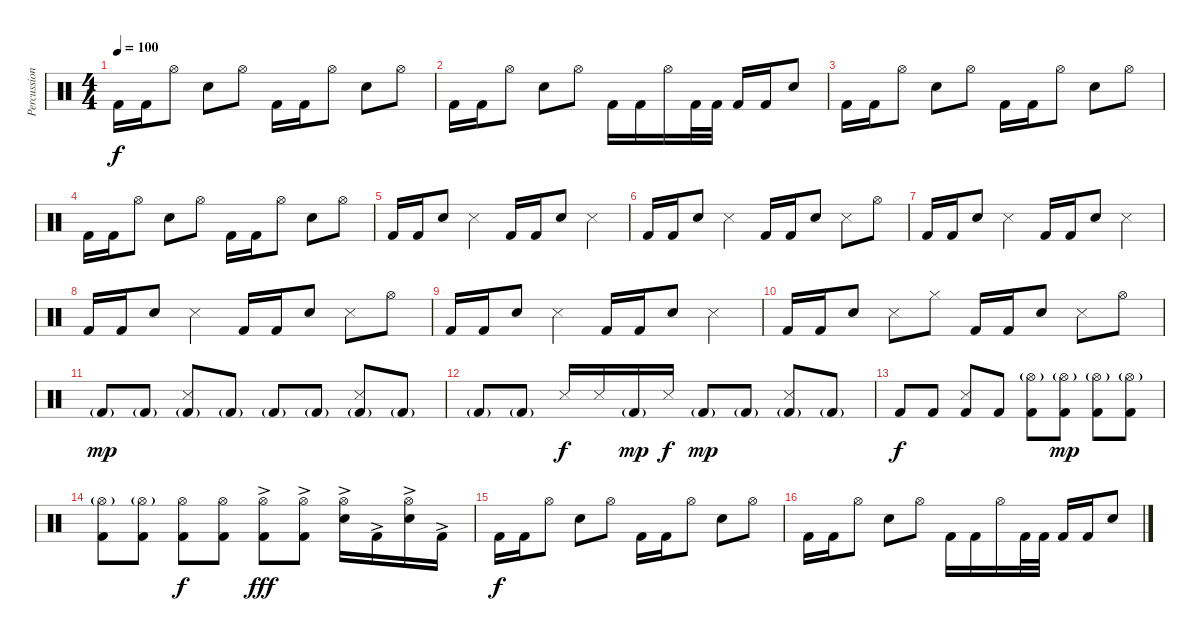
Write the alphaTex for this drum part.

\track ("Percussion" "Percussion") {instrument percussion}
\staff {score}
\articulation defaults
\ts (4 4)
\tempo 100
\clef neutral
\ks c "Kick (hit) 2".16{dy f} "Kick (hit) 2".16 "Hi-Hat (open)".8 "Electric Snare (hit)".8 "Hi-Hat (open)".8 "Kick (hit) 2".16 "Kick (hit) 2".16 "Hi-Hat (open)".8 "Electric Snare (hit)".8 "Hi-Hat (open)".8
|
"Kick (hit) 2".16 "Kick (hit) 2".16 "Hi-Hat (open)".8 "Electric Snare (hit)".8 "Hi-Hat (open)".8 "Kick (hit) 2".16 "Kick (hit) 2".16 "Hi-Hat (open)".16 "Kick (hit) 2".32 "Kick (hit) 2".32 "Kick (hit) 2".16 "Kick (hit) 2".16 "Electric Snare (hit)".8 |
"Kick (hit) 2".16 "Kick (hit) 2".16 "Hi-Hat (open)".8 "Electric Snare (hit)".8 "Hi-Hat (open)".8 "Kick (hit) 2".16 "Kick (hit) 2".16 "Hi-Hat (open)".8 "Electric Snare (hit)".8 "Hi-Hat (open)".8 |
"Kick (hit) 2".16 "Kick (hit) 2".16 "Hi-Hat (open)".8 "Electric Snare (hit)".8 "Hi-Hat (open)".8 "Kick (hit) 2".16 "Kick (hit) 2".16 "Hi-Hat (open)".8 "Electric Snare (hit)".8 "Hi-Hat (open)".8 |
"Kick (hit) 2".16 "Kick (hit) 2".16 "Snare (hit)".8 "Metronome (hit)".4 "Kick (hit) 2".16 "Kick (hit) 2".16 "Snare (hit)".8 "Metronome (hit)".4 |
"Kick (hit) 2".16 "Kick (hit) 2".16 "Snare (hit)".8 "Metronome (hit)".4 "Kick (hit) 2".16 "Kick (hit) 2".16 "Snare (hit)".8 "Metronome (hit)".8 "Hi-Hat (open)".8 |
"Kick (hit) 2".16 "Kick (hit) 2".16 "Snare (hit)".8 "Metronome (hit)".4 "Kick (hit) 2".16 "Kick (hit) 2".16 "Snare (hit)".8 "Metronome (hit)".4 |
"Kick (hit) 2".16 "Kick (hit) 2".16 "Snare (hit)".8 "Metronome (hit)".4 "Kick (hit) 2".16 "Kick (hit) 2".16 "Snare (hit)".8 "Metronome (hit)".8 "Hi-Hat (open)".8 |
"Kick (hit) 2".16 "Kick (hit) 2".16 "Snare (hit)".8 "Metronome (hit)".4 "Kick (hit) 2".16 "Kick (hit) 2".16 "Snare (hit)".8 "Metronome (hit)".4 |
"Kick (hit) 2".16 "Kick (hit) 2".16 "Snare (hit)".8 "Metronome (hit)".8 "Hi-Hat (closed)".8 "Kick (hit) 2".16 "Kick (hit) 2".16 "Snare (hit)".8 "Metronome (hit)".8 "Hi-Hat (open)".8 |
"Kick (hit) 2"{g}.8{dy mp} "Kick (hit) 2"{g}.8 ("Metronome (hit)" "Kick (hit) 2"{g}).8 "Kick (hit) 2"{g}.8 "Kick (hit) 2"{g}.8 "Kick (hit) 2"{g}.8 ("Metronome (hit)" "Kick (hit) 2"{g}).8 "Kick (hit) 2"{g}.8 |
"Kick (hit) 2"{g}.8 "Kick (hit) 2"{g}.8 "Metronome (hit)".16{dy f} "Metronome (hit)".16 "Kick (hit) 2"{g}.16{dy mp} "Metronome (hit)".16{dy f} "Kick (hit) 2"{g}.8{dy mp} "Kick (hit) 2"{g}.8 ("Metronome (hit)" "Kick (hit) 2"{g}).8 "Kick (hit) 2"{g}.8 |
"Kick (hit) 2".8{dy f} "Kick (hit) 2".8 ("Metronome (hit)" "Kick (hit) 2").8 "Kick (hit) 2".8 ("Hi-Hat (open)"{g} "Kick (hit) 2").8 ("Hi-Hat (open)"{g} "Kick (hit) 2").8{dy mp} ("Hi-Hat (open)"{g} "Kick (hit) 2").8 ("Hi-Hat (open)"{g} "Kick (hit) 2").8 |
("Hi-Hat (open)"{g} "Kick (hit) 2").8 ("Hi-Hat (open)"{g} "Kick (hit) 2").8 ("Hi-Hat (open)" "Kick (hit) 2").8{dy f} ("Hi-Hat (open)" "Kick (hit) 2").8 ("Hi-Hat (open)"{ac} "Kick (hit) 2").8{dy fff} ("Hi-Hat (open)"{ac} "Kick (hit) 2"{ac}).8 ("Electric Snare (hit)"{ac} "Hi-Hat (open)"{ac}).16 "Kick (hit) 2"{ac}.16 ("Hi-Hat (open)"{ac} "Electric Snare (hit)"{ac}).16 "Kick (hit) 2"{ac}.16 |
"Kick (hit) 2".16{dy f} "Kick (hit) 2".16 "Hi-Hat (open)".8 "Electric Snare (hit)".8 "Hi-Hat (open)".8 "Kick (hit) 2".16 "Kick (hit) 2".16 "Hi-Hat (open)".8 "Electric Snare (hit)".8 "Hi-Hat (open)".8 |
"Kick (hit) 2".16 "Kick (hit) 2".16 "Hi-Hat (open)".8 "Electric Snare (hit)".8 "Hi-Hat (open)".8 "Kick (hit) 2".16 "Kick (hit) 2".16 "Hi-Hat (open)".16 "Kick (hit) 2".32 "Kick (hit) 2".32 "Kick (hit) 2".16 "Kick (hit) 2".16 "Electric Snare (hit)".8
